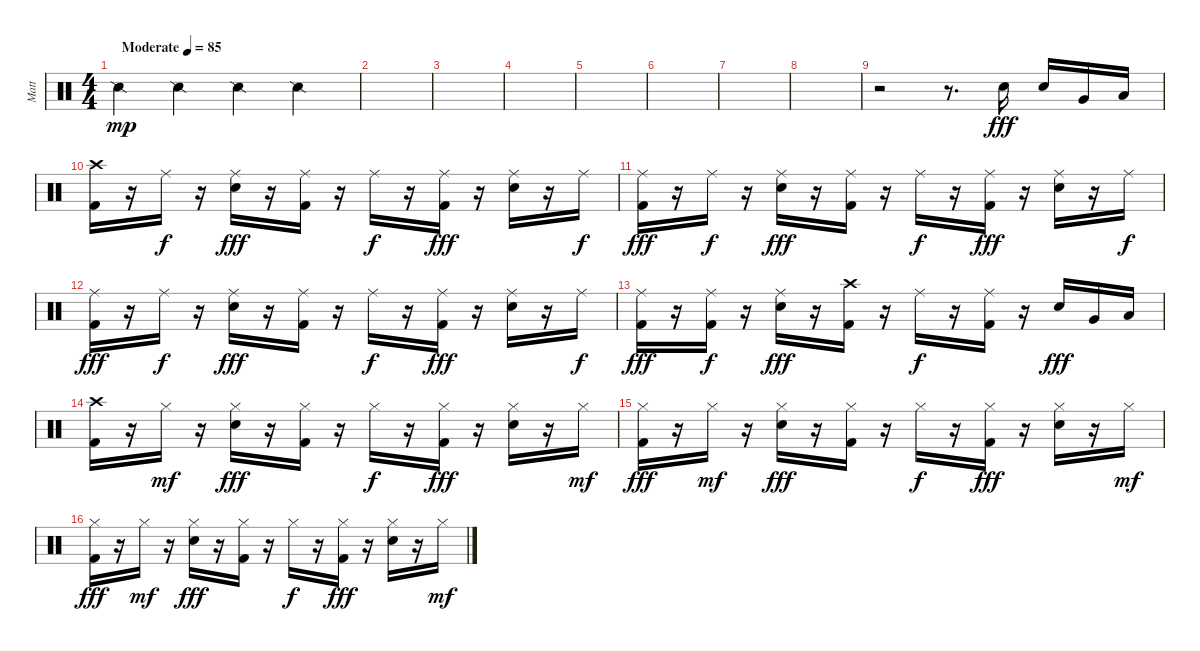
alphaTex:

\track ("Matt" "Matt") {instrument percussion}
\staff {score}
\articulation defaults
\ts (4 4)
\tempo (85 "Moderate")
\clef neutral
\ks c "Snare (side stick) 2".4{dy mp} "Snare (side stick) 2".4 "Snare (side stick) 2".4 "Snare (side stick) 2".4
|
|
|
|
|
|
|
|
r.2 r.8{d} "Electric Snare (hit)".16{dy fff} "Electric Snare (hit)".16 "Very Low Tom (hit)".16 "Low Floor Tom (hit)".16 |
("Crash high (hit)" "Kick (hit) 2").16 r.16 "Ride (middle)".16{dy f} r.16 ("Ride (middle)" "Electric Snare (hit)").16{dy fff} r.16 ("Ride (middle)" "Kick (hit) 2").16 r.16 "Ride (middle)".16{dy f} r.16 ("Ride (middle)" "Kick (hit) 2").16{dy fff} r.16 ("Ride (middle)" "Electric Snare (hit)").16 r.16 "Ride (middle)".16{dy f} |
("Ride (middle)" "Kick (hit) 2").16{dy fff} r.16 "Ride (middle)".16{dy f} r.16 ("Ride (middle)" "Electric Snare (hit)").16{dy fff} r.16 ("Ride (middle)" "Kick (hit) 2").16 r.16 "Ride (middle)".16{dy f} r.16 ("Ride (middle)" "Kick (hit) 2").16{dy fff} r.16 ("Ride (middle)" "Electric Snare (hit)").16 r.16 "Ride (middle)".16{dy f} |
("Ride (middle)" "Kick (hit) 2").16{dy fff} r.16 "Ride (middle)".16{dy f} r.16 ("Ride (middle)" "Electric Snare (hit)").16{dy fff} r.16 ("Ride (middle)" "Kick (hit) 2").16 r.16 "Ride (middle)".16{dy f} r.16 ("Ride (middle)" "Kick (hit) 2").16{dy fff} r.16 ("Ride (middle)" "Electric Snare (hit)").16 r.16 "Ride (middle)".16{dy f} |
("Ride (middle)" "Kick (hit) 2").16{dy fff} r.16 ("Ride (middle)" "Kick (hit) 2").16{dy f} r.16 ("Ride (middle)" "Electric Snare (hit)").16{dy fff} r.16 ("Crash high (hit)" "Kick (hit) 2").16 r.16 "Ride (middle)".16{dy f} r.16 ("Ride (middle)" "Kick (hit) 2").16 r.16 "Electric Snare (hit)".16{dy fff} "Very Low Tom (hit)".16 "Low Floor Tom (hit)".16 |
("Crash high (hit)" "Kick (hit) 2").16 r.16 "Hi-Hat (closed)".16{dy mf} r.16 ("Hi-Hat (closed)" "Electric Snare (hit)").16{dy fff} r.16 ("Hi-Hat (closed)" "Kick (hit) 2").16 r.16 "Hi-Hat (closed)".16{dy f} r.16 ("Hi-Hat (closed)" "Kick (hit) 2").16{dy fff} r.16 ("Hi-Hat (closed)" "Electric Snare (hit)").16 r.16 "Hi-Hat (closed)".16{dy mf} |
("Hi-Hat (closed)" "Kick (hit) 2").16{dy fff} r.16 "Hi-Hat (closed)".16{dy mf} r.16 ("Hi-Hat (closed)" "Electric Snare (hit)").16{dy fff} r.16 ("Hi-Hat (closed)" "Kick (hit) 2").16 r.16 "Hi-Hat (closed)".16{dy f} r.16 ("Hi-Hat (closed)" "Kick (hit) 2").16{dy fff} r.16 ("Hi-Hat (closed)" "Electric Snare (hit)").16 r.16 "Hi-Hat (closed)".16{dy mf} |
("Hi-Hat (closed)" "Kick (hit) 2").16{dy fff} r.16 "Hi-Hat (closed)".16{dy mf} r.16 ("Hi-Hat (closed)" "Electric Snare (hit)").16{dy fff} r.16 ("Hi-Hat (closed)" "Kick (hit) 2").16 r.16 "Hi-Hat (closed)".16{dy f} r.16 ("Hi-Hat (closed)" "Kick (hit) 2").16{dy fff} r.16 ("Hi-Hat (closed)" "Electric Snare (hit)").16 r.16 "Hi-Hat (closed)".16{dy mf}
